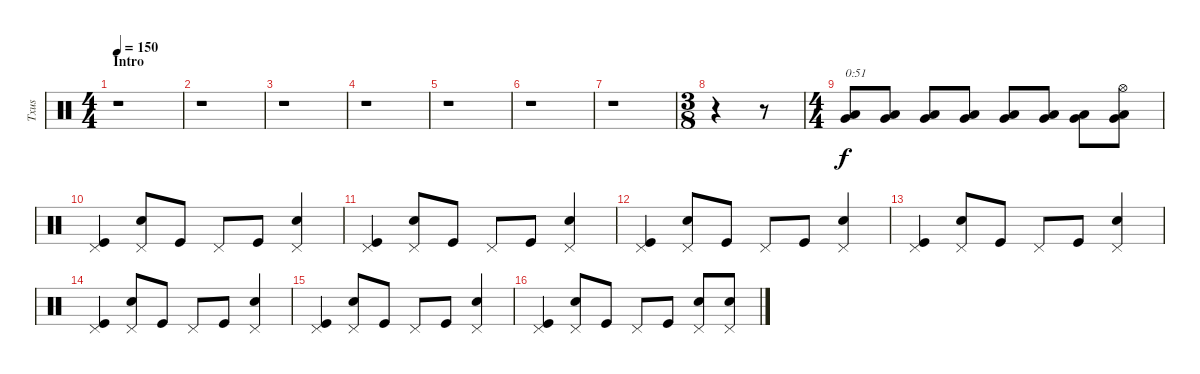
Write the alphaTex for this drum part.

\track ("Txus" "Txus") {instrument percussion}
\staff {score}
\articulation defaults
\ts (4 4)
\section ("" "Intro")
\tempo 150
\clef neutral
\ks c
r.1{dy f} |
r.1 |
r.1 |
r.1 |
r.1 |
r.1 |
r.1 |
\ts (3 8)
r.4 r.8 |
\ts (4 4)
("Very Low Tom (hit)" "Low Floor Tom (hit)").8{txt "0:51"} ("Very Low Tom (hit)" "Low Floor Tom (hit)").8 ("Very Low Tom (hit)" "Low Floor Tom (hit)").8 ("Very Low Tom (hit)" "Low Floor Tom (hit)").8 ("Very Low Tom (hit)" "Low Floor Tom (hit)").8 ("Very Low Tom (hit)" "Low Floor Tom (hit)").8 ("Very Low Tom (hit)" "Low Floor Tom (hit)").8 ("Very Low Tom (hit)" "Low Floor Tom (hit)" "Hi-Hat (open)").8 |
("Kick (hit)" "Pedal Hi-Hat (hit)").4 ("Snare (hit) 2" "Pedal Hi-Hat (hit)").8 "Kick (hit)".8 "Pedal Hi-Hat (hit)".8 "Kick (hit)".8 ("Snare (hit) 2" "Pedal Hi-Hat (hit)").4 |
("Kick (hit)" "Pedal Hi-Hat (hit)").4 ("Snare (hit) 2" "Pedal Hi-Hat (hit)").8 "Kick (hit)".8 "Pedal Hi-Hat (hit)".8 "Kick (hit)".8 ("Snare (hit) 2" "Pedal Hi-Hat (hit)").4 |
("Kick (hit)" "Pedal Hi-Hat (hit)").4 ("Snare (hit) 2" "Pedal Hi-Hat (hit)").8 "Kick (hit)".8 "Pedal Hi-Hat (hit)".8 "Kick (hit)".8 ("Snare (hit) 2" "Pedal Hi-Hat (hit)").4 |
("Kick (hit)" "Pedal Hi-Hat (hit)").4 ("Snare (hit) 2" "Pedal Hi-Hat (hit)").8 "Kick (hit)".8 "Pedal Hi-Hat (hit)".8 "Kick (hit)".8 ("Snare (hit) 2" "Pedal Hi-Hat (hit)").4 |
("Kick (hit)" "Pedal Hi-Hat (hit)").4 ("Snare (hit) 2" "Pedal Hi-Hat (hit)").8 "Kick (hit)".8 "Pedal Hi-Hat (hit)".8 "Kick (hit)".8 ("Snare (hit) 2" "Pedal Hi-Hat (hit)").4 |
("Kick (hit)" "Pedal Hi-Hat (hit)").4 ("Snare (hit) 2" "Pedal Hi-Hat (hit)").8 "Kick (hit)".8 "Pedal Hi-Hat (hit)".8 "Kick (hit)".8 ("Snare (hit) 2" "Pedal Hi-Hat (hit)").4 |
("Kick (hit)" "Pedal Hi-Hat (hit)").4 ("Snare (hit) 2" "Pedal Hi-Hat (hit)").8 "Kick (hit)".8 "Pedal Hi-Hat (hit)".8 "Kick (hit)".8 ("Snare (hit) 2" "Pedal Hi-Hat (hit)").8 ("Snare (hit) 2" "Pedal Hi-Hat (hit)").8
